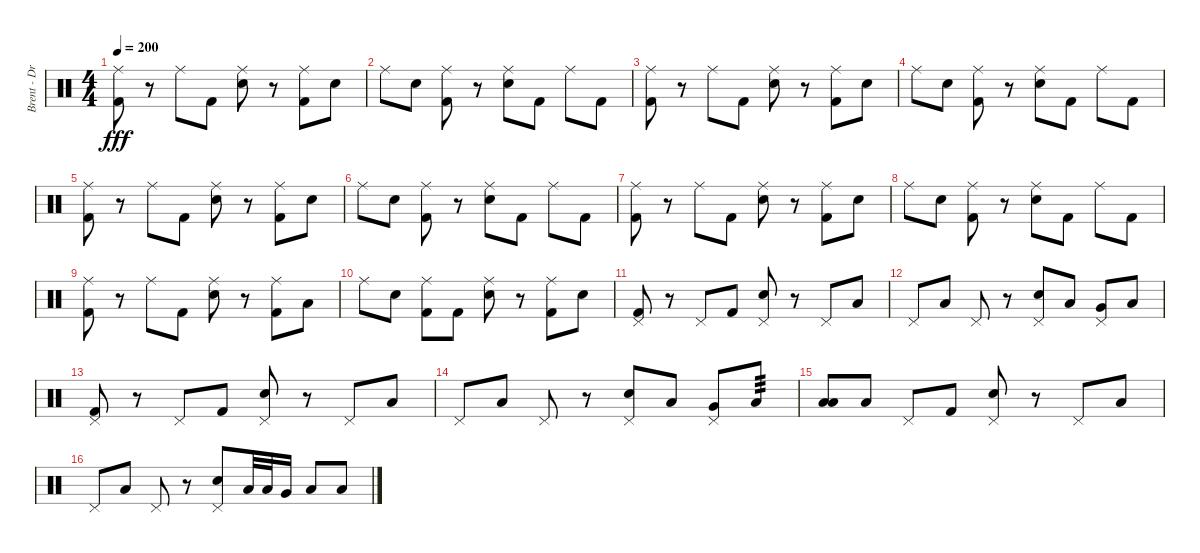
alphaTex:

\track ("Brent - Drums" "Brent - Dr") {instrument percussion}
\staff {score}
\articulation defaults
\ts (4 4)
\tempo 200
\clef neutral
\ks c
("Ride (middle)" "Kick (hit) 2").8{dy fff} r.8 "Ride (middle)".8 "Kick (hit) 2".8 ("Ride (middle)" "Snare (hit) 2").8 r.8 ("Ride (middle)" "Kick (hit) 2").8 "Snare (hit) 2".8 |
"Ride (middle)".8 "Snare (hit) 2".8 ("Ride (middle)" "Kick (hit) 2").8 r.8 ("Ride (middle)" "Snare (hit) 2").8 "Kick (hit) 2".8 "Ride (middle)".8 "Kick (hit) 2".8 |
("Ride (middle)" "Kick (hit) 2").8 r.8 "Ride (middle)".8 "Kick (hit) 2".8 ("Ride (middle)" "Snare (hit) 2").8 r.8 ("Ride (middle)" "Kick (hit) 2").8 "Snare (hit) 2".8 |
"Ride (middle)".8 "Snare (hit) 2".8 ("Ride (middle)" "Kick (hit) 2").8 r.8 ("Ride (middle)" "Snare (hit) 2").8 "Kick (hit) 2".8 "Ride (middle)".8 "Kick (hit) 2".8 |
("Ride (middle)" "Kick (hit) 2").8 r.8 "Ride (middle)".8 "Kick (hit) 2".8 ("Ride (middle)" "Snare (hit) 2").8 r.8 ("Ride (middle)" "Kick (hit) 2").8 "Snare (hit) 2".8 |
"Ride (middle)".8 "Snare (hit) 2".8 ("Ride (middle)" "Kick (hit) 2").8 r.8 ("Ride (middle)" "Snare (hit) 2").8 "Kick (hit) 2".8 "Ride (middle)".8 "Kick (hit) 2".8 |
("Ride (middle)" "Kick (hit) 2").8 r.8 "Ride (middle)".8 "Kick (hit) 2".8 ("Ride (middle)" "Snare (hit) 2").8 r.8 ("Ride (middle)" "Kick (hit) 2").8 "Snare (hit) 2".8 |
"Ride (middle)".8 "Snare (hit) 2".8 ("Ride (middle)" "Kick (hit) 2").8 r.8 ("Ride (middle)" "Snare (hit) 2").8 "Kick (hit) 2".8 "Ride (middle)".8 "Kick (hit) 2".8 |
("Ride (middle)" "Kick (hit) 2").8 r.8 "Ride (middle)".8 "Kick (hit) 2".8 ("Ride (middle)" "Snare (hit) 2").8 r.8 ("Ride (middle)" "Kick (hit) 2").8 "Low Floor Tom (hit)".8 |
"Ride (middle)".8 "Snare (hit) 2".8 ("Ride (middle)" "Kick (hit) 2").8 "Kick (hit) 2".8 ("Ride (middle)" "Snare (hit) 2").8 r.8 ("Ride (middle)" "Kick (hit) 2").8 "Snare (hit) 2".8 |
("Pedal Hi-Hat (hit)" "Kick (hit) 2").8 r.8 "Pedal Hi-Hat (hit)".8 "Kick (hit) 2".8 ("Pedal Hi-Hat (hit)" "Snare (hit) 2").8 r.8 "Pedal Hi-Hat (hit)".8 "Low Tom (hit)".8 |
"Pedal Hi-Hat (hit)".8 "Low Floor Tom (hit)".8 "Pedal Hi-Hat (hit)".8 r.8 ("Pedal Hi-Hat (hit)" "Snare (hit) 2").8 "Low Tom (hit)".8 ("Pedal Hi-Hat (hit)" "Very Low Tom (hit)").8 "Low Floor Tom (hit)".8 |
("Pedal Hi-Hat (hit)" "Kick (hit) 2").8 r.8 "Pedal Hi-Hat (hit)".8 "Kick (hit) 2".8 ("Pedal Hi-Hat (hit)" "Snare (hit) 2").8 r.8 "Pedal Hi-Hat (hit)".8 "Low Tom (hit)".8 |
"Pedal Hi-Hat (hit)".8 "Low Floor Tom (hit)".8 "Pedal Hi-Hat (hit)".8 r.8 ("Pedal Hi-Hat (hit)" "Snare (hit) 2").8 "Low Tom (hit)".8 ("Pedal Hi-Hat (hit)" "Very Low Tom (hit)").8 "Low Floor Tom (hit)".8{tp 3} |
("Low Floor Tom (hit)" "Low Floor Tom (hit)").8 "Low Floor Tom (hit)".8 "Pedal Hi-Hat (hit)".8 "Kick (hit) 2".8 ("Pedal Hi-Hat (hit)" "Snare (hit) 2").8 r.8 "Pedal Hi-Hat (hit)".8 "Low Tom (hit)".8 |
"Pedal Hi-Hat (hit)".8 "Low Floor Tom (hit)".8 "Pedal Hi-Hat (hit)".8 r.8 ("Pedal Hi-Hat (hit)" "Snare (hit) 2").8 "Low Tom (hit)".32 "Low Tom (hit)".32 "Very Low Tom (hit)".16 "Low Tom (hit)".8 "Low Floor Tom (hit)".8
